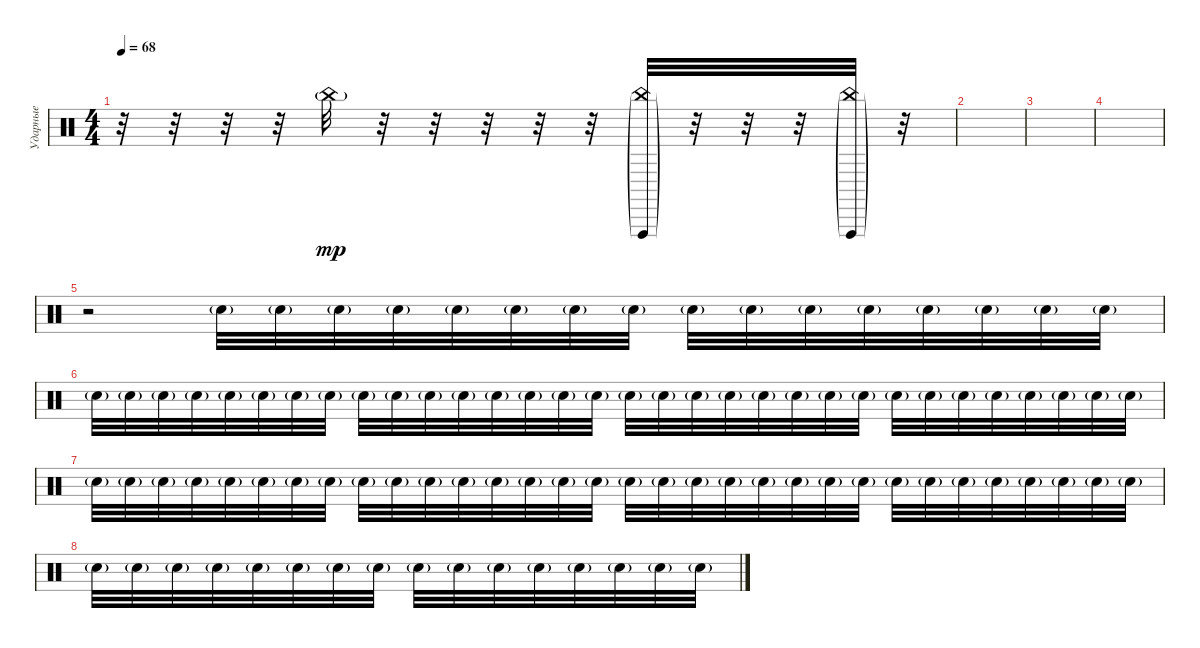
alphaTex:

\track ("Ударные" "Ударные") {instrument percussion}
\staff {score}
\articulation defaults
\ts (4 4)
\tempo 68
\clef neutral
\ks c
r.32{dy mp} r.32 r.32 r.32 "China (hit)"{g}.32 r.32 r.32 r.32 r.32 r.32 ("China (hit)"{g} "Vibraslap (hit)"{g}).32 r.32 r.32 r.32 ("China (hit)"{g} "Vibraslap (hit)"{g}).32 r.32 |
|
|
|
r.2 "Snare (hit) 2"{g}.32 "Snare (hit) 2"{g}.32 "Snare (hit) 2"{g}.32 "Snare (hit) 2"{g}.32 "Snare (hit) 2"{g}.32 "Snare (hit) 2"{g}.32 "Snare (hit) 2"{g}.32 "Snare (hit) 2"{g}.32 "Snare (hit) 2"{g}.32 "Snare (hit) 2"{g}.32 "Snare (hit) 2"{g}.32 "Snare (hit) 2"{g}.32 "Snare (hit) 2"{g}.32 "Snare (hit) 2"{g}.32 "Snare (hit) 2"{g}.32 "Snare (hit) 2"{g}.32 |
"Snare (hit) 2"{g}.32 "Snare (hit) 2"{g}.32 "Snare (hit) 2"{g}.32 "Snare (hit) 2"{g}.32 "Snare (hit) 2"{g}.32 "Snare (hit) 2"{g}.32 "Snare (hit) 2"{g}.32 "Snare (hit) 2"{g}.32 "Snare (hit) 2"{g}.32 "Snare (hit) 2"{g}.32 "Snare (hit) 2"{g}.32 "Snare (hit) 2"{g}.32 "Snare (hit) 2"{g}.32 "Snare (hit) 2"{g}.32 "Snare (hit) 2"{g}.32 "Snare (hit) 2"{g}.32 "Snare (hit) 2"{g}.32 "Snare (hit) 2"{g}.32 "Snare (hit) 2"{g}.32 "Snare (hit) 2"{g}.32 "Snare (hit) 2"{g}.32 "Snare (hit) 2"{g}.32 "Snare (hit) 2"{g}.32 "Snare (hit) 2"{g}.32 "Snare (hit) 2"{g}.32 "Snare (hit) 2"{g}.32 "Snare (hit) 2"{g}.32 "Snare (hit) 2"{g}.32 "Snare (hit) 2"{g}.32 "Snare (hit) 2"{g}.32 "Snare (hit) 2"{g}.32 "Snare (hit) 2"{g}.32 |
"Snare (hit) 2"{g}.32 "Snare (hit) 2"{g}.32 "Snare (hit) 2"{g}.32 "Snare (hit) 2"{g}.32 "Snare (hit) 2"{g}.32 "Snare (hit) 2"{g}.32 "Snare (hit) 2"{g}.32 "Snare (hit) 2"{g}.32 "Snare (hit) 2"{g}.32 "Snare (hit) 2"{g}.32 "Snare (hit) 2"{g}.32 "Snare (hit) 2"{g}.32 "Snare (hit) 2"{g}.32 "Snare (hit) 2"{g}.32 "Snare (hit) 2"{g}.32 "Snare (hit) 2"{g}.32 "Snare (hit) 2"{g}.32 "Snare (hit) 2"{g}.32 "Snare (hit) 2"{g}.32 "Snare (hit) 2"{g}.32 "Snare (hit) 2"{g}.32 "Snare (hit) 2"{g}.32 "Snare (hit) 2"{g}.32 "Snare (hit) 2"{g}.32 "Snare (hit) 2"{g}.32 "Snare (hit) 2"{g}.32 "Snare (hit) 2"{g}.32 "Snare (hit) 2"{g}.32 "Snare (hit) 2"{g}.32 "Snare (hit) 2"{g}.32 "Snare (hit) 2"{g}.32 "Snare (hit) 2"{g}.32 |
"Snare (hit) 2"{g}.32 "Snare (hit) 2"{g}.32 "Snare (hit) 2"{g}.32 "Snare (hit) 2"{g}.32 "Snare (hit) 2"{g}.32 "Snare (hit) 2"{g}.32 "Snare (hit) 2"{g}.32 "Snare (hit) 2"{g}.32 "Snare (hit) 2"{g}.32 "Snare (hit) 2"{g}.32 "Snare (hit) 2"{g}.32 "Snare (hit) 2"{g}.32 "Snare (hit) 2"{g}.32 "Snare (hit) 2"{g}.32 "Snare (hit) 2"{g}.32 "Snare (hit) 2"{g}.32
